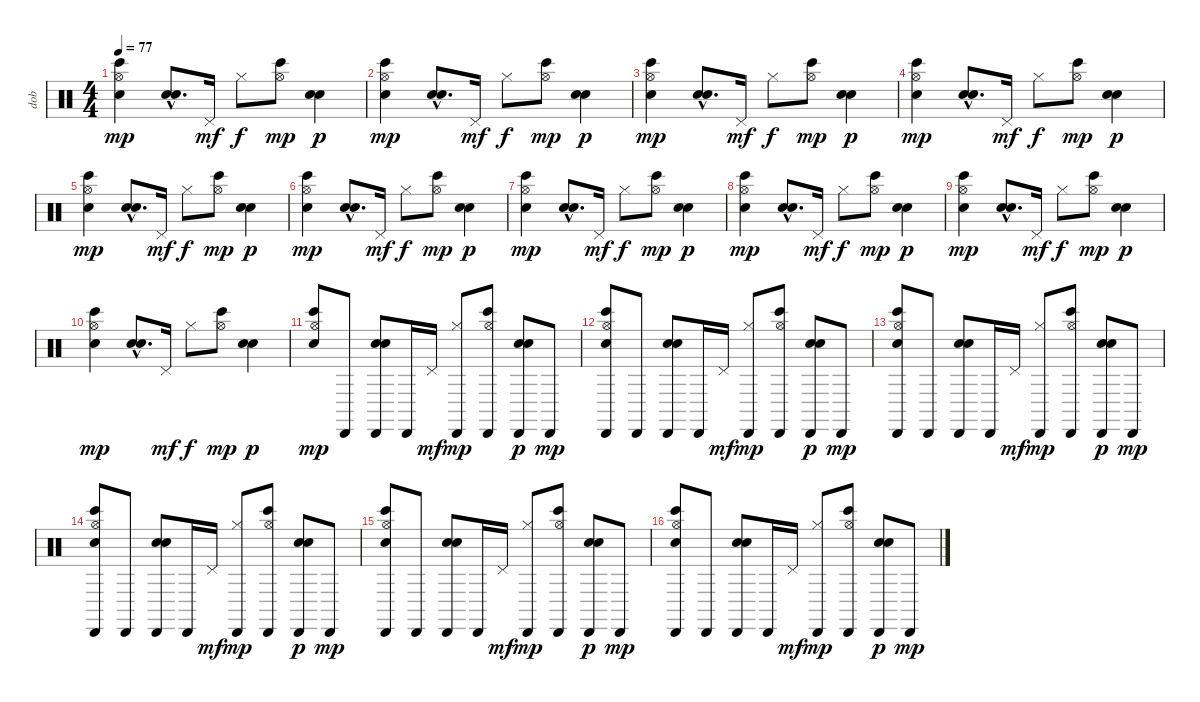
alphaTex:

\track ("dob" "dob") {instrument percussion}
\staff {score}
\articulation defaults
\ts (4 4)
\tempo 77
\clef neutral
\ks c
("Bongo High (hit)" "Snare (hit) 2" "Hi-Hat (open)").4{dy mp} ("Electric Snare (hit)"{hac} "Hand Clap (hit)"{hac}).8{d} "Pedal Hi-Hat (hit)".16{dy mf} "Hi-Hat (closed)".8{dy f} ("Bongo High (hit)" "Hi-Hat (open)").8{dy mp} ("Electric Snare (hit)" "Hand Clap (hit)").4{dy p} |
("Bongo High (hit)" "Snare (hit) 2" "Hi-Hat (open)").4{dy mp} ("Electric Snare (hit)"{hac} "Hand Clap (hit)"{hac}).8{d} "Pedal Hi-Hat (hit)".16{dy mf} "Hi-Hat (closed)".8{dy f} ("Bongo High (hit)" "Hi-Hat (open)").8{dy mp} ("Electric Snare (hit)" "Hand Clap (hit)").4{dy p} |
("Bongo High (hit)" "Snare (hit) 2" "Hi-Hat (open)").4{dy mp} ("Electric Snare (hit)"{hac} "Hand Clap (hit)"{hac}).8{d} "Pedal Hi-Hat (hit)".16{dy mf} "Hi-Hat (closed)".8{dy f} ("Bongo High (hit)" "Hi-Hat (open)").8{dy mp} ("Electric Snare (hit)" "Hand Clap (hit)").4{dy p} |
("Bongo High (hit)" "Snare (hit) 2" "Hi-Hat (open)").4{dy mp} ("Electric Snare (hit)"{hac} "Hand Clap (hit)"{hac}).8{d} "Pedal Hi-Hat (hit)".16{dy mf} "Hi-Hat (closed)".8{dy f} ("Bongo High (hit)" "Hi-Hat (open)").8{dy mp} ("Electric Snare (hit)" "Hand Clap (hit)").4{dy p} |
("Bongo High (hit)" "Snare (hit) 2" "Hi-Hat (open)").4{dy mp} ("Electric Snare (hit)"{hac} "Hand Clap (hit)"{hac}).8{d} "Pedal Hi-Hat (hit)".16{dy mf} "Hi-Hat (closed)".8{dy f} ("Bongo High (hit)" "Hi-Hat (open)").8{dy mp} ("Electric Snare (hit)" "Hand Clap (hit)").4{dy p} |
("Bongo High (hit)" "Snare (hit) 2" "Hi-Hat (open)").4{dy mp} ("Electric Snare (hit)"{hac} "Hand Clap (hit)"{hac}).8{d} "Pedal Hi-Hat (hit)".16{dy mf} "Hi-Hat (closed)".8{dy f} ("Bongo High (hit)" "Hi-Hat (open)").8{dy mp} ("Electric Snare (hit)" "Hand Clap (hit)").4{dy p} |
("Bongo High (hit)" "Snare (hit) 2" "Hi-Hat (open)").4{dy mp} ("Electric Snare (hit)"{hac} "Hand Clap (hit)"{hac}).8{d} "Pedal Hi-Hat (hit)".16{dy mf} "Hi-Hat (closed)".8{dy f} ("Bongo High (hit)" "Hi-Hat (open)").8{dy mp} ("Electric Snare (hit)" "Hand Clap (hit)").4{dy p} |
("Bongo High (hit)" "Snare (hit) 2" "Hi-Hat (open)").4{dy mp} ("Electric Snare (hit)"{hac} "Hand Clap (hit)"{hac}).8{d} "Pedal Hi-Hat (hit)".16{dy mf} "Hi-Hat (closed)".8{dy f} ("Bongo High (hit)" "Hi-Hat (open)").8{dy mp} ("Electric Snare (hit)" "Hand Clap (hit)").4{dy p} |
("Bongo High (hit)" "Snare (hit) 2" "Hi-Hat (open)").4{dy mp} ("Electric Snare (hit)"{hac} "Hand Clap (hit)"{hac}).8{d} "Pedal Hi-Hat (hit)".16{dy mf} "Hi-Hat (closed)".8{dy f} ("Bongo High (hit)" "Hi-Hat (open)").8{dy mp} ("Electric Snare (hit)" "Hand Clap (hit)").4{dy p} |
("Bongo High (hit)" "Snare (hit) 2" "Hi-Hat (open)").4{dy mp} ("Electric Snare (hit)"{hac} "Hand Clap (hit)"{hac}).8{d} "Pedal Hi-Hat (hit)".16{dy mf} "Hi-Hat (closed)".8{dy f} ("Bongo High (hit)" "Hi-Hat (open)").8{dy mp} ("Electric Snare (hit)" "Hand Clap (hit)").4{dy p} |
("Bongo High (hit)" "Snare (hit) 2" "Hi-Hat (open)").8{dy mp} "Cabasa (hit)".8 ("Electric Snare (hit)" "Cabasa (hit)" "Hand Clap (hit)").8 "Cabasa (hit)".16 "Pedal Hi-Hat (hit)".16{dy mf} ("Cabasa (hit)" "Hi-Hat (closed)").8{dy mp} ("Bongo High (hit)" "Cabasa (hit)" "Hi-Hat (open)").8 ("Electric Snare (hit)" "Cabasa (hit)" "Hand Clap (hit)").8{dy p} "Cabasa (hit)".8{dy mp} |
("Bongo High (hit)" "Cabasa (hit)" "Snare (hit) 2" "Hi-Hat (open)").8 "Cabasa (hit)".8 ("Electric Snare (hit)" "Cabasa (hit)" "Hand Clap (hit)").8 "Cabasa (hit)".16 "Pedal Hi-Hat (hit)".16{dy mf} ("Cabasa (hit)" "Hi-Hat (closed)").8{dy mp} ("Bongo High (hit)" "Cabasa (hit)" "Hi-Hat (open)").8 ("Electric Snare (hit)" "Cabasa (hit)" "Hand Clap (hit)").8{dy p} "Cabasa (hit)".8{dy mp} |
("Bongo High (hit)" "Cabasa (hit)" "Snare (hit) 2" "Hi-Hat (open)").8 "Cabasa (hit)".8 ("Electric Snare (hit)" "Cabasa (hit)" "Hand Clap (hit)").8 "Cabasa (hit)".16 "Pedal Hi-Hat (hit)".16{dy mf} ("Cabasa (hit)" "Hi-Hat (closed)").8{dy mp} ("Bongo High (hit)" "Cabasa (hit)" "Hi-Hat (open)").8 ("Electric Snare (hit)" "Cabasa (hit)" "Hand Clap (hit)").8{dy p} "Cabasa (hit)".8{dy mp} |
("Bongo High (hit)" "Cabasa (hit)" "Snare (hit) 2" "Hi-Hat (open)").8 "Cabasa (hit)".8 ("Electric Snare (hit)" "Cabasa (hit)" "Hand Clap (hit)").8 "Cabasa (hit)".16 "Pedal Hi-Hat (hit)".16{dy mf} ("Cabasa (hit)" "Hi-Hat (closed)").8{dy mp} ("Bongo High (hit)" "Cabasa (hit)" "Hi-Hat (open)").8 ("Electric Snare (hit)" "Cabasa (hit)" "Hand Clap (hit)").8{dy p} "Cabasa (hit)".8{dy mp} |
("Bongo High (hit)" "Cabasa (hit)" "Snare (hit) 2" "Hi-Hat (open)").8 "Cabasa (hit)".8 ("Electric Snare (hit)" "Cabasa (hit)" "Hand Clap (hit)").8 "Cabasa (hit)".16 "Pedal Hi-Hat (hit)".16{dy mf} ("Cabasa (hit)" "Hi-Hat (closed)").8{dy mp} ("Bongo High (hit)" "Cabasa (hit)" "Hi-Hat (open)").8 ("Electric Snare (hit)" "Cabasa (hit)" "Hand Clap (hit)").8{dy p} "Cabasa (hit)".8{dy mp} |
("Bongo High (hit)" "Cabasa (hit)" "Snare (hit) 2" "Hi-Hat (open)").8 "Cabasa (hit)".8 ("Electric Snare (hit)" "Cabasa (hit)" "Hand Clap (hit)").8 "Cabasa (hit)".16 "Pedal Hi-Hat (hit)".16{dy mf} ("Cabasa (hit)" "Hi-Hat (closed)").8{dy mp} ("Bongo High (hit)" "Cabasa (hit)" "Hi-Hat (open)").8 ("Electric Snare (hit)" "Cabasa (hit)" "Hand Clap (hit)").8{dy p} "Cabasa (hit)".8{dy mp}
